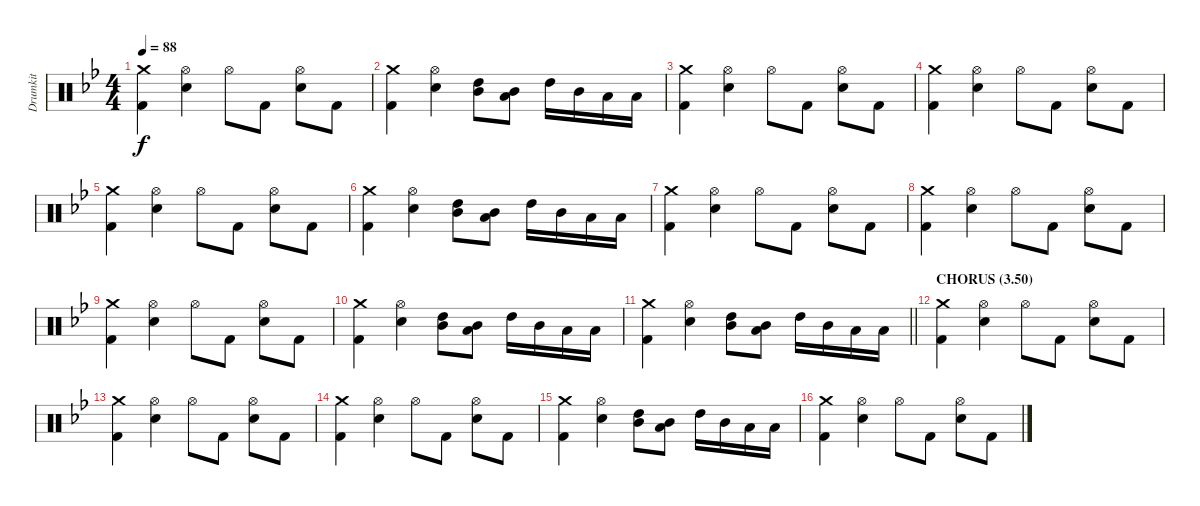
\track ("Drumkit" "Drumkit") {instrument percussion}
\staff {score}
\articulation defaults
\ts (4 4)
\tempo 88
\clef neutral
\ks bb
("Kick (hit) 2" "Crash medium (hit)").4{dy f} ("Snare (hit) 2" "Hi-Hat (open)").4 "Hi-Hat (open)".8 "Kick (hit) 2".8 ("Snare (hit) 2" "Hi-Hat (open)").8 "Kick (hit) 2".8 |
("Kick (hit) 2" "Crash medium (hit)").4 ("Snare (hit) 2" "Hi-Hat (open)").4 ("High Tom (hit)" "Mid Tom (hit)").8 ("Mid Tom (hit)" "Low Tom (hit)").8 "High Tom (hit)".16 "Mid Tom (hit)".16 "Low Tom (hit)".16 "Low Tom (hit)".16 |
("Kick (hit) 2" "Crash medium (hit)").4 ("Snare (hit) 2" "Hi-Hat (open)").4 "Hi-Hat (open)".8 "Kick (hit) 2".8 ("Snare (hit) 2" "Hi-Hat (open)").8 "Kick (hit) 2".8 |
("Kick (hit) 2" "Crash medium (hit)").4 ("Snare (hit) 2" "Hi-Hat (open)").4 "Hi-Hat (open)".8 "Kick (hit) 2".8 ("Snare (hit) 2" "Hi-Hat (open)").8 "Kick (hit) 2".8 |
("Kick (hit) 2" "Crash medium (hit)").4 ("Snare (hit) 2" "Hi-Hat (open)").4 "Hi-Hat (open)".8 "Kick (hit) 2".8 ("Snare (hit) 2" "Hi-Hat (open)").8 "Kick (hit) 2".8 |
("Kick (hit) 2" "Crash medium (hit)").4 ("Snare (hit) 2" "Hi-Hat (open)").4 ("High Tom (hit)" "Mid Tom (hit)").8 ("Mid Tom (hit)" "Low Tom (hit)").8 "High Tom (hit)".16 "Mid Tom (hit)".16 "Low Tom (hit)".16 "Low Tom (hit)".16 |
("Kick (hit) 2" "Crash medium (hit)").4 ("Snare (hit) 2" "Hi-Hat (open)").4 "Hi-Hat (open)".8 "Kick (hit) 2".8 ("Snare (hit) 2" "Hi-Hat (open)").8 "Kick (hit) 2".8 |
("Kick (hit) 2" "Crash medium (hit)").4 ("Snare (hit) 2" "Hi-Hat (open)").4 "Hi-Hat (open)".8 "Kick (hit) 2".8 ("Snare (hit) 2" "Hi-Hat (open)").8 "Kick (hit) 2".8 |
("Kick (hit) 2" "Crash medium (hit)").4 ("Snare (hit) 2" "Hi-Hat (open)").4 "Hi-Hat (open)".8 "Kick (hit) 2".8 ("Snare (hit) 2" "Hi-Hat (open)").8 "Kick (hit) 2".8 |
("Kick (hit) 2" "Crash medium (hit)").4 ("Snare (hit) 2" "Hi-Hat (open)").4 ("High Tom (hit)" "Mid Tom (hit)").8 ("Mid Tom (hit)" "Low Tom (hit)").8 "High Tom (hit)".16 "Mid Tom (hit)".16 "Low Tom (hit)".16 "Low Tom (hit)".16 |
\barLineRight lightlight
("Kick (hit) 2" "Crash medium (hit)").4 ("Snare (hit) 2" "Hi-Hat (open)").4 ("High Tom (hit)" "Mid Tom (hit)").8 ("Mid Tom (hit)" "Low Tom (hit)").8 "High Tom (hit)".16 "Mid Tom (hit)".16 "Low Tom (hit)".16 "Low Tom (hit)".16 |
\section ("" "CHORUS (3.50)")
("Kick (hit) 2" "Crash medium (hit)").4 ("Snare (hit) 2" "Hi-Hat (open)").4 "Hi-Hat (open)".8 "Kick (hit) 2".8 ("Snare (hit) 2" "Hi-Hat (open)").8 "Kick (hit) 2".8 |
("Kick (hit) 2" "Crash medium (hit)").4 ("Snare (hit) 2" "Hi-Hat (open)").4 "Hi-Hat (open)".8 "Kick (hit) 2".8 ("Snare (hit) 2" "Hi-Hat (open)").8 "Kick (hit) 2".8 |
("Kick (hit) 2" "Crash medium (hit)").4 ("Snare (hit) 2" "Hi-Hat (open)").4 "Hi-Hat (open)".8 "Kick (hit) 2".8 ("Snare (hit) 2" "Hi-Hat (open)").8 "Kick (hit) 2".8 |
("Kick (hit) 2" "Crash medium (hit)").4 ("Snare (hit) 2" "Hi-Hat (open)").4 ("High Tom (hit)" "Mid Tom (hit)").8 ("Mid Tom (hit)" "Low Tom (hit)").8 "High Tom (hit)".16 "Mid Tom (hit)".16 "Low Tom (hit)".16 "Low Tom (hit)".16 |
("Kick (hit) 2" "Crash medium (hit)").4 ("Snare (hit) 2" "Hi-Hat (open)").4 "Hi-Hat (open)".8 "Kick (hit) 2".8 ("Snare (hit) 2" "Hi-Hat (open)").8 "Kick (hit) 2".8
